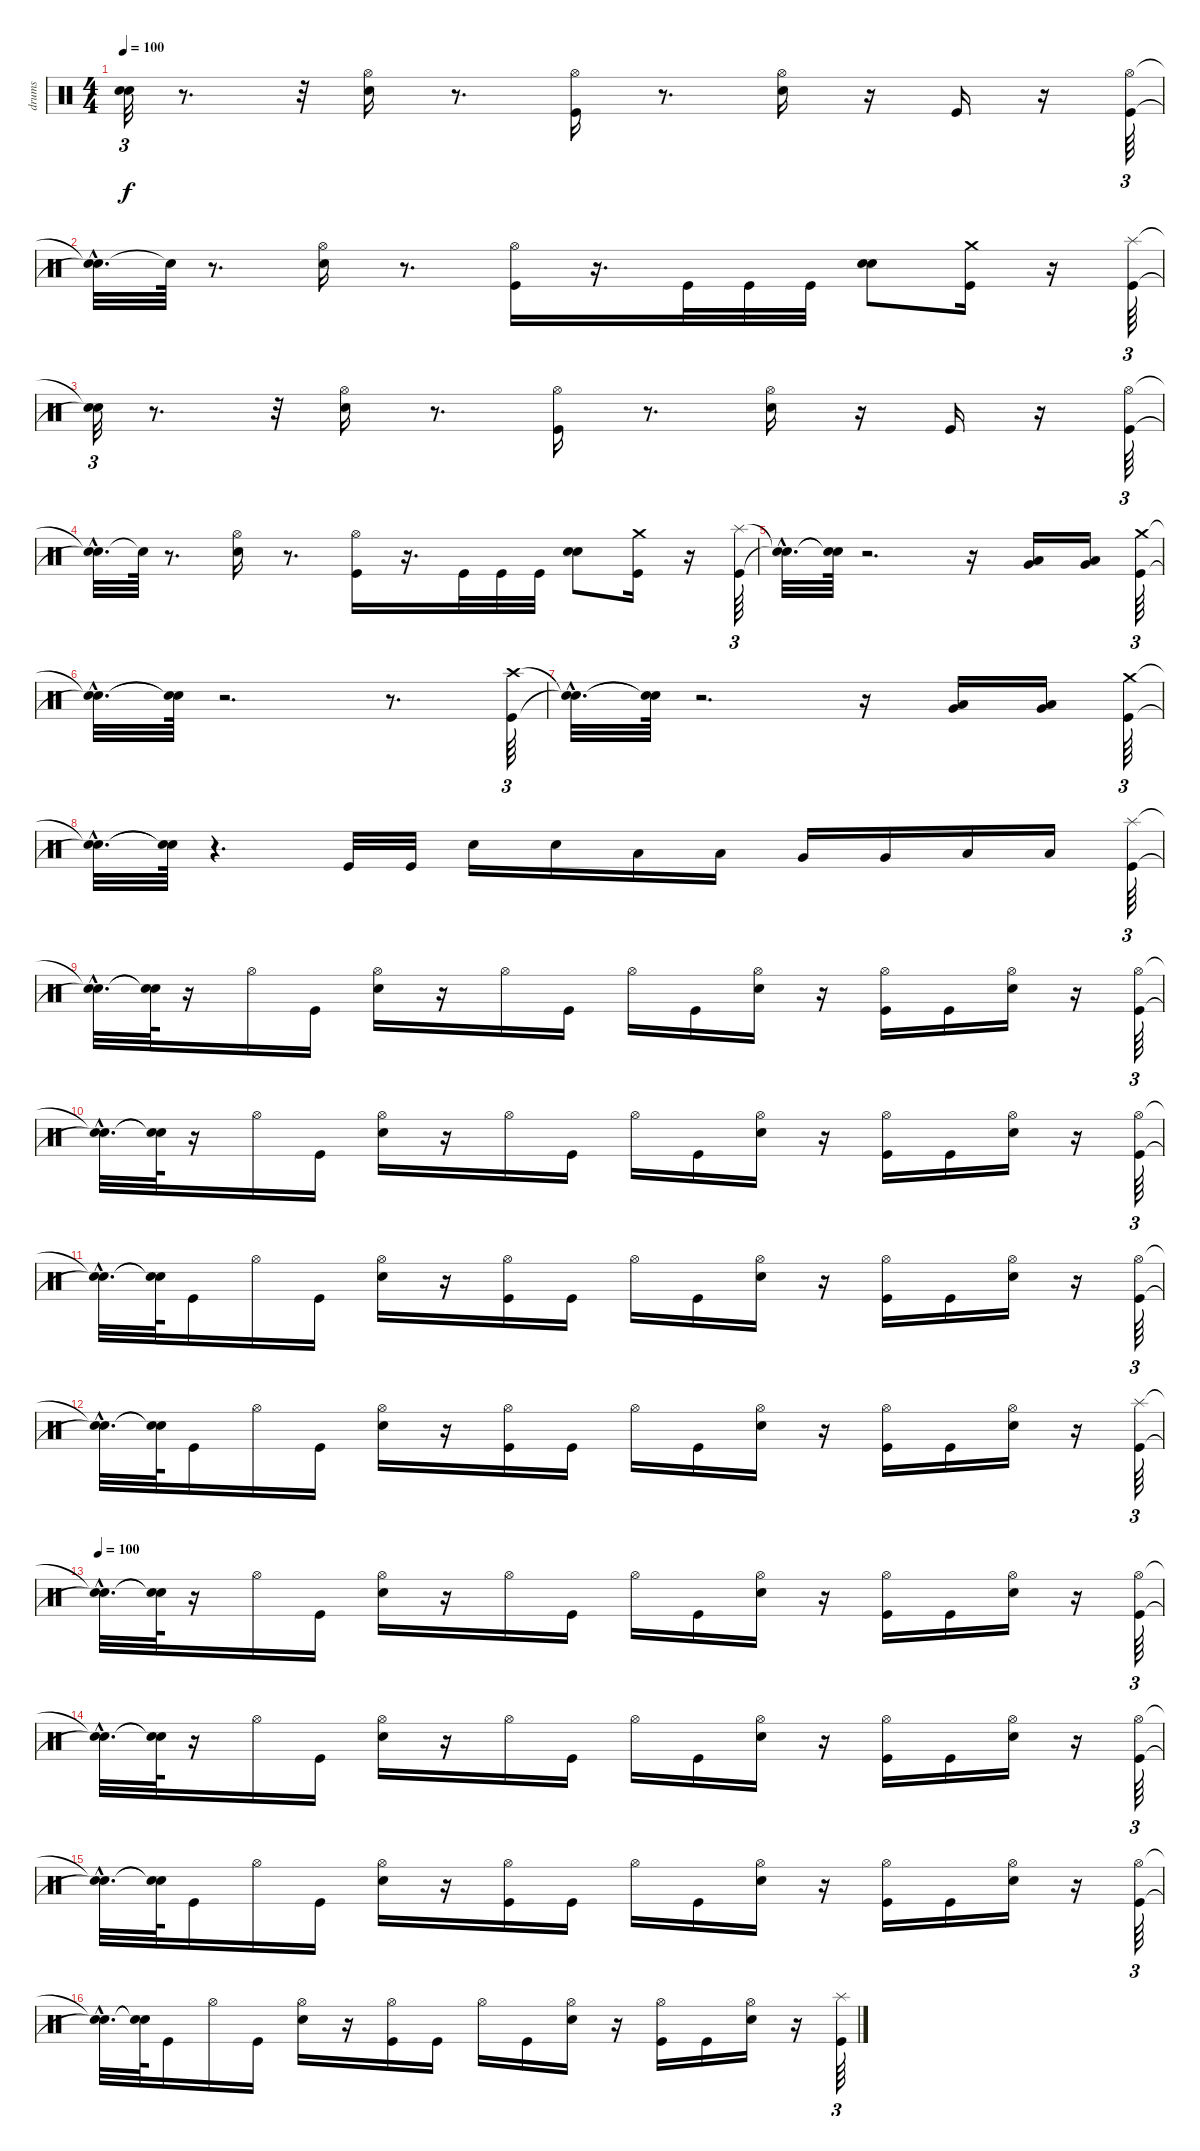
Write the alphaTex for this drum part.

\track ("drums" "drums") {instrument percussion}
\staff {score}
\articulation defaults
\ts (4 4)
\tempo 100
\clef neutral
\ks c
("Snare (hit)"{t} "Snare (hit)"{t}).32{tu (3 2) dy f} r.8{d} r.32 ("Hi-Hat (open)" "Electric Snare (hit)").16 r.8{d} ("Kick (hit)" "Hi-Hat (open)").16 r.8{d} ("Hi-Hat (open)" "Electric Snare (hit)").16 r.16 "Kick (hit)".16 r.16 ("Hi-Hat (open)" "Kick (hit)").64{tu (3 2)} |
("Snare (hit)"{t} "Snare (hit)"{hac t}).32{d} "Snare (hit)"{t}.64 r.8{d} ("Electric Snare (hit)" "Hi-Hat (open)").16 r.8{d} ("Kick (hit)" "Hi-Hat (open)").16 r.16{d} "Kick (hit)".32 "Kick (hit)".32 "Kick (hit)".32 ("Electric Snare (hit)" "Electric Snare (hit)").8 ("Crash medium (hit)" "Kick (hit)").16 r.16 ("Kick (hit)" "Splash (hit)").64{tu (3 2)} |
("Snare (hit)"{t} "Snare (hit)"{t}).32{tu (3 2)} r.8{d} r.32 ("Hi-Hat (open)" "Electric Snare (hit)").16 r.8{d} ("Kick (hit)" "Hi-Hat (open)").16 r.8{d} ("Hi-Hat (open)" "Electric Snare (hit)").16 r.16 "Kick (hit)".16 r.16 ("Hi-Hat (open)" "Kick (hit)").64{tu (3 2)} |
("Snare (hit)"{t} "Snare (hit)"{hac t}).32{d} "Snare (hit)"{t}.64 r.8{d} ("Electric Snare (hit)" "Hi-Hat (open)").16 r.8{d} ("Kick (hit)" "Hi-Hat (open)").16 r.16{d} "Kick (hit)".32 "Kick (hit)".32 "Kick (hit)".32 ("Electric Snare (hit)" "Electric Snare (hit)").8 ("Crash medium (hit)" "Kick (hit)").16 r.16 ("Splash (hit)" "Kick (hit)").64{tu (3 2)} |
("Snare (hit)"{hac t} "Snare (hit)"{hac t}).32{d} ("Snare (hit)"{t} "Snare (hit)"{t}).64 r.2{d} r.16 ("Very Low Tom (hit)" "Low Floor Tom (hit)").16 ("Very Low Tom (hit)" "Low Floor Tom (hit)").16 ("Kick (hit)" "Crash medium (hit)").64{tu (3 2)} |
("Snare (hit)"{hac t} "Snare (hit)"{hac t}).32{d} ("Snare (hit)"{t} "Snare (hit)"{t}).64 r.2{d} r.8{d} ("Kick (hit)" "Crash high (hit)").64{tu (3 2)} |
("Snare (hit)"{hac t} "Snare (hit)"{hac t}).32{d} ("Snare (hit)"{t} "Snare (hit)"{t}).64 r.2{d} r.16 ("Very Low Tom (hit)" "Low Floor Tom (hit)").16 ("Low Floor Tom (hit)" "Very Low Tom (hit)").16 ("Crash medium (hit)" "Kick (hit)").64{tu (3 2)} |
("Snare (hit)"{hac t} "Snare (hit)"{hac t}).32{d} ("Snare (hit)"{t} "Snare (hit)"{t}).64 r.4{d} "Kick (hit)".32 "Kick (hit)".32 "Electric Snare (hit)".16 "Electric Snare (hit)".16 "Low Tom (hit)".16 "Low Tom (hit)".16 "Very Low Tom (hit)".16 "Very Low Tom (hit)".16 "Low Floor Tom (hit)".16 "Low Floor Tom (hit)".16 ("Splash (hit)" "Kick (hit)").64{tu (3 2)} |
("Snare (hit)"{hac t} "Snare (hit)"{hac t}).32{d} ("Snare (hit)"{t} "Snare (hit)"{t}).64 r.16 "Hi-Hat (open)".16 "Kick (hit)".16 ("Electric Snare (hit)" "Hi-Hat (open)").16 r.16 "Hi-Hat (open)".16 "Kick (hit)".16 "Hi-Hat (open)".16 "Kick (hit)".16 ("Hi-Hat (open)" "Electric Snare (hit)").16 r.16 ("Kick (hit)" "Hi-Hat (open)").16 "Kick (hit)".16 ("Hi-Hat (open)" "Electric Snare (hit)").16 r.16 ("Kick (hit)" "Hi-Hat (open)").64{tu (3 2)} |
("Snare (hit)"{hac t} "Snare (hit)"{hac t}).32{d} ("Snare (hit)"{t} "Snare (hit)"{t}).64 r.16 "Hi-Hat (open)".16 "Kick (hit)".16 ("Hi-Hat (open)" "Electric Snare (hit)").16 r.16 "Hi-Hat (open)".16 "Kick (hit)".16 "Hi-Hat (open)".16 "Kick (hit)".16 ("Hi-Hat (open)" "Electric Snare (hit)").16 r.16 ("Hi-Hat (open)" "Kick (hit)").16 "Kick (hit)".16 ("Hi-Hat (open)" "Electric Snare (hit)").16 r.16 ("Hi-Hat (open)" "Kick (hit)").64{tu (3 2)} |
("Snare (hit)"{hac t} "Snare (hit)"{hac t}).32{d} ("Snare (hit)"{t} "Snare (hit)"{t}).64 "Kick (hit)".16 "Hi-Hat (open)".16 "Kick (hit)".16 ("Electric Snare (hit)" "Hi-Hat (open)").16 r.16 ("Hi-Hat (open)" "Kick (hit)").16 "Kick (hit)".16 "Hi-Hat (open)".16 "Kick (hit)".16 ("Hi-Hat (open)" "Electric Snare (hit)").16 r.16 ("Kick (hit)" "Hi-Hat (open)").16 "Kick (hit)".16 ("Hi-Hat (open)" "Electric Snare (hit)").16 r.16 ("Kick (hit)" "Hi-Hat (open)").64{tu (3 2)} |
("Snare (hit)"{hac t} "Snare (hit)"{hac t}).32{d} ("Snare (hit)"{t} "Snare (hit)"{t}).64 "Kick (hit)".16 "Hi-Hat (open)".16 "Kick (hit)".16 ("Hi-Hat (open)" "Electric Snare (hit)").16 r.16 ("Hi-Hat (open)" "Kick (hit)").16 "Kick (hit)".16 "Hi-Hat (open)".16 "Kick (hit)".16 ("Hi-Hat (open)" "Electric Snare (hit)").16 r.16 ("Hi-Hat (open)" "Kick (hit)").16 "Kick (hit)".16 ("Hi-Hat (open)" "Electric Snare (hit)").16 r.16 ("Splash (hit)" "Kick (hit)").64{tu (3 2)} |
\tempo 100
("Snare (hit)"{hac t} "Snare (hit)"{hac t}).32{d} ("Snare (hit)"{t} "Snare (hit)"{t}).64 r.16 "Hi-Hat (open)".16 "Kick (hit)".16 ("Electric Snare (hit)" "Hi-Hat (open)").16 r.16 "Hi-Hat (open)".16 "Kick (hit)".16 "Hi-Hat (open)".16 "Kick (hit)".16 ("Hi-Hat (open)" "Electric Snare (hit)").16 r.16 ("Kick (hit)" "Hi-Hat (open)").16 "Kick (hit)".16 ("Hi-Hat (open)" "Electric Snare (hit)").16 r.16 ("Kick (hit)" "Hi-Hat (open)").64{tu (3 2)} |
("Snare (hit)"{hac t} "Snare (hit)"{hac t}).32{d} ("Snare (hit)"{t} "Snare (hit)"{t}).64 r.16 "Hi-Hat (open)".16 "Kick (hit)".16 ("Hi-Hat (open)" "Electric Snare (hit)").16 r.16 "Hi-Hat (open)".16 "Kick (hit)".16 "Hi-Hat (open)".16 "Kick (hit)".16 ("Hi-Hat (open)" "Electric Snare (hit)").16 r.16 ("Hi-Hat (open)" "Kick (hit)").16 "Kick (hit)".16 ("Hi-Hat (open)" "Electric Snare (hit)").16 r.16 ("Hi-Hat (open)" "Kick (hit)").64{tu (3 2)} |
("Snare (hit)"{hac t} "Snare (hit)"{hac t}).32{d} ("Snare (hit)"{t} "Snare (hit)"{t}).64 "Kick (hit)".16 "Hi-Hat (open)".16 "Kick (hit)".16 ("Electric Snare (hit)" "Hi-Hat (open)").16 r.16 ("Hi-Hat (open)" "Kick (hit)").16 "Kick (hit)".16 "Hi-Hat (open)".16 "Kick (hit)".16 ("Hi-Hat (open)" "Electric Snare (hit)").16 r.16 ("Kick (hit)" "Hi-Hat (open)").16 "Kick (hit)".16 ("Hi-Hat (open)" "Electric Snare (hit)").16 r.16 ("Kick (hit)" "Hi-Hat (open)").64{tu (3 2)} |
("Snare (hit)"{hac t} "Snare (hit)"{hac t}).32{d} ("Snare (hit)"{t} "Snare (hit)"{t}).64 "Kick (hit)".16 "Hi-Hat (open)".16 "Kick (hit)".16 ("Hi-Hat (open)" "Electric Snare (hit)").16 r.16 ("Hi-Hat (open)" "Kick (hit)").16 "Kick (hit)".16 "Hi-Hat (open)".16 "Kick (hit)".16 ("Hi-Hat (open)" "Electric Snare (hit)").16 r.16 ("Hi-Hat (open)" "Kick (hit)").16 "Kick (hit)".16 ("Hi-Hat (open)" "Electric Snare (hit)").16 r.16 ("Splash (hit)" "Kick (hit)").64{tu (3 2)}
